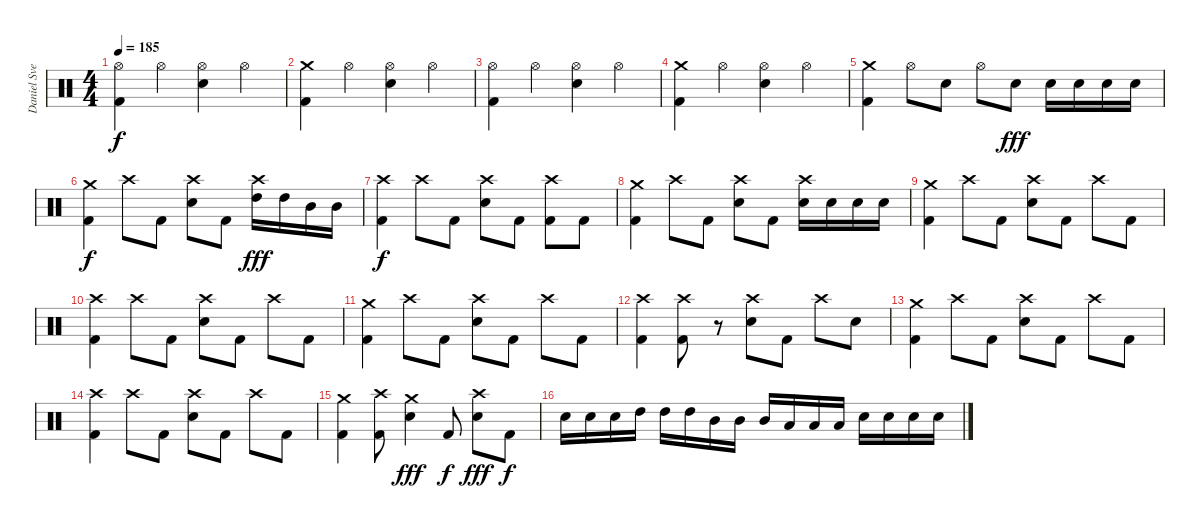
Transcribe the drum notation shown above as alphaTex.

\track ("Daniel Svensson" "Daniel Sve") {instrument percussion}
\staff {score}
\articulation defaults
\ts (4 4)
\tempo 185
\clef neutral
\ks c
("Kick (hit) 2" "Hi-Hat (open)").4{dy f} "Hi-Hat (open)".4 ("Electric Snare (hit)" "Hi-Hat (open)").4 "Hi-Hat (open)".4 |
("Kick (hit) 2" "Crash medium (hit)").4 "Hi-Hat (open)".4 ("Electric Snare (hit)" "Hi-Hat (open)").4 "Hi-Hat (open)".4 |
("Kick (hit) 2" "Hi-Hat (open)").4 "Hi-Hat (open)".4 ("Electric Snare (hit)" "Hi-Hat (open)").4 "Hi-Hat (open)".4 |
("Kick (hit) 2" "Crash medium (hit)").4 "Hi-Hat (open)".4 ("Electric Snare (hit)" "Hi-Hat (open)").4 "Hi-Hat (open)".4 |
("Kick (hit) 2" "Crash medium (hit)").4 "Hi-Hat (open)".8 "Electric Snare (hit)".8 "Hi-Hat (open)".8 "Electric Snare (hit)".8{dy fff} "Electric Snare (hit)".16 "Electric Snare (hit)".16 "Electric Snare (hit)".16 "Electric Snare (hit)".16 |
("Kick (hit) 2" "Crash medium (hit)").4{dy f} "Crash high (hit)".8 "Kick (hit) 2".8 ("Electric Snare (hit)" "Crash high (hit)").8 "Kick (hit) 2".8 ("High Tom (hit)" "Crash high (hit)").16{dy fff} "High Tom (hit)".16 "Mid Tom (hit)".16 "Mid Tom (hit)".16 |
("Kick (hit) 2" "Crash high (hit)").4{dy f} "Crash high (hit)".8 "Kick (hit) 2".8 ("Electric Snare (hit)" "Crash high (hit)").8 "Kick (hit) 2".8 ("Kick (hit) 2" "Crash high (hit)").8 "Kick (hit) 2".8 |
("Kick (hit) 2" "Crash medium (hit)").4 "Crash high (hit)".8 "Kick (hit) 2".8 ("Electric Snare (hit)" "Crash high (hit)").8 "Kick (hit) 2".8 ("Electric Snare (hit)" "Crash high (hit)").16 "Electric Snare (hit)".16 "Electric Snare (hit)".16 "Electric Snare (hit)".16 |
("Kick (hit) 2" "Crash medium (hit)").4 "Crash high (hit)".8 "Kick (hit) 2".8 ("Electric Snare (hit)" "Crash high (hit)").8 "Kick (hit) 2".8 "Crash high (hit)".8 "Kick (hit) 2".8 |
("Kick (hit) 2" "Crash high (hit)").4 "Crash high (hit)".8 "Kick (hit) 2".8 ("Electric Snare (hit)" "Crash high (hit)").8 "Kick (hit) 2".8 "Crash high (hit)".8 "Kick (hit) 2".8 |
("Kick (hit) 2" "Crash medium (hit)").4 "Crash high (hit)".8 "Kick (hit) 2".8 ("Electric Snare (hit)" "Crash high (hit)").8 "Kick (hit) 2".8 "Crash high (hit)".8 "Kick (hit) 2".8 |
("Kick (hit) 2" "Crash high (hit)").4 ("Kick (hit) 2" "Crash high (hit)").8 r.8 ("Electric Snare (hit)" "Crash high (hit)").8 "Kick (hit) 2".8 "Crash high (hit)".8 "Electric Snare (hit)".8 |
("Kick (hit) 2" "Crash medium (hit)").4 "Crash high (hit)".8 "Kick (hit) 2".8 ("Electric Snare (hit)" "Crash high (hit)").8 "Kick (hit) 2".8 "Crash high (hit)".8 "Kick (hit) 2".8 |
("Kick (hit) 2" "Crash high (hit)").4 "Crash high (hit)".8 "Kick (hit) 2".8 ("Electric Snare (hit)" "Crash high (hit)").8 "Kick (hit) 2".8 "Crash high (hit)".8 "Kick (hit) 2".8 |
("Kick (hit) 2" "Crash medium (hit)").4 ("Kick (hit) 2" "Crash high (hit)").8 ("Electric Snare (hit)" "Crash medium (hit)").4{dy fff} "Kick (hit) 2".8{dy f} ("Electric Snare (hit)" "Crash high (hit)").8{dy fff} "Kick (hit) 2".8{dy f} |
"Electric Snare (hit)".16 "Electric Snare (hit)".16 "Electric Snare (hit)".16 "High Tom (hit)".16 "High Tom (hit)".16 "High Tom (hit)".16 "Mid Tom (hit)".16 "Mid Tom (hit)".16 "Mid Tom (hit)".16 "Low Tom (hit)".16 "Low Tom (hit)".16 "Low Tom (hit)".16 "Electric Snare (hit)".16 "Electric Snare (hit)".16 "Electric Snare (hit)".16 "Electric Snare (hit)".16
